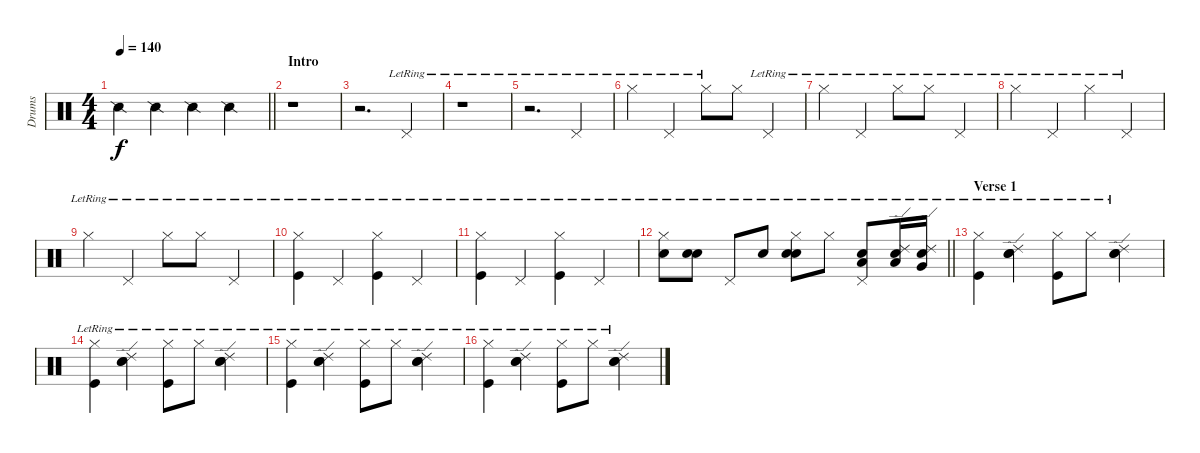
\track ("Drums" "Drums") {instrument percussion}
\staff {score}
\articulation defaults
\ts (4 4)
\tempo 140
\clef neutral
\barLineRight lightlight
\ks c "Snare (side stick) 2".4{dy f} "Snare (side stick) 2".4 "Snare (side stick) 2".4 "Snare (side stick) 2".4
|
\section ("" "Intro")
r.1 |
r.2{d} "Pedal Hi-Hat (hit)"{lr}.4 |
r.1 |
r.2{d} "Pedal Hi-Hat (hit)"{lr}.4 |
"Hi-Hat (closed)"{lr}.4 "Pedal Hi-Hat (hit)"{lr}.4 "Hi-Hat (closed)"{lr}.8 "Hi-Hat (closed)".8 "Pedal Hi-Hat (hit)"{lr}.4 |
"Hi-Hat (closed)"{lr}.4 "Pedal Hi-Hat (hit)"{lr}.4 "Hi-Hat (closed)"{lr}.8 "Hi-Hat (closed)"{lr}.8 "Pedal Hi-Hat (hit)"{lr}.4 |
"Hi-Hat (closed)"{lr}.4 "Pedal Hi-Hat (hit)"{lr}.4 "Hi-Hat (closed)"{lr}.4 "Pedal Hi-Hat (hit)"{lr}.4 |
"Hi-Hat (closed)"{lr}.4 "Pedal Hi-Hat (hit)"{lr}.4 "Hi-Hat (closed)"{lr}.8 "Hi-Hat (closed)"{lr}.8 "Pedal Hi-Hat (hit)"{lr}.4 |
("Hi-Hat (closed)"{lr} "Kick (hit)"{lr}).4 "Pedal Hi-Hat (hit)"{lr}.4 ("Hi-Hat (closed)"{lr} "Kick (hit)"{lr}).4 "Pedal Hi-Hat (hit)"{lr}.4 |
("Hi-Hat (closed)"{lr} "Kick (hit)"{lr}).4 "Pedal Hi-Hat (hit)"{lr}.4 ("Hi-Hat (closed)"{lr} "Kick (hit)"{lr}).4 "Pedal Hi-Hat (hit)"{lr}.4 |
\barLineRight lightlight
("Hi-Hat (closed)"{lr} "Snare (hit) 2"{lr}).8 ("Snare (hit) 2"{lr} "Electric Snare (hit)"{lr}).8 "Pedal Hi-Hat (hit)"{lr}.8 "Snare (hit) 2"{lr}.8 ("Hi-Hat (closed)"{lr} "Snare (hit) 2"{lr} "Electric Snare (hit)"{lr}).8 "Hi-Hat (closed)"{lr}.8 ("Pedal Hi-Hat (hit)"{lr} "Snare (hit) 2"{lr} "Low Tom (hit)"{lr}).8 ("Ride (edge) 2"{lr} "Snare (hit) 2"{lr} "Low Tom (hit)"{lr}).16 ("Ride (edge) 2"{lr} "Snare (hit) 2"{lr} "Very Low Tom (hit)"{lr}).16 |
\section ("" "Verse 1")
("Hi-Hat (closed)"{lr} "Kick (hit)"{lr}).4 ("Electric Snare (hit)"{lr} "Ride (edge) 2"{lr} "Snare (hit) 2"{lr}).4 ("Hi-Hat (closed)"{lr} "Kick (hit)"{lr}).8 "Hi-Hat (closed)"{lr}.8 ("Electric Snare (hit)"{lr} "Ride (edge) 2"{lr} "Snare (hit) 2"{lr}).4 |
("Hi-Hat (closed)"{lr} "Kick (hit)"{lr}).4 ("Electric Snare (hit)"{lr} "Ride (edge) 2"{lr} "Snare (hit) 2"{lr}).4 ("Hi-Hat (closed)"{lr} "Kick (hit)"{lr}).8 "Hi-Hat (closed)"{lr}.8 ("Electric Snare (hit)"{lr} "Ride (edge) 2"{lr} "Snare (hit) 2"{lr}).4 |
("Hi-Hat (closed)"{lr} "Kick (hit)"{lr}).4 ("Electric Snare (hit)"{lr} "Ride (edge) 2"{lr} "Snare (hit) 2"{lr}).4 ("Hi-Hat (closed)"{lr} "Kick (hit)"{lr}).8 "Hi-Hat (closed)"{lr}.8 ("Electric Snare (hit)"{lr} "Ride (edge) 2"{lr} "Snare (hit) 2"{lr}).4 |
("Hi-Hat (closed)"{lr} "Kick (hit)"{lr}).4 ("Electric Snare (hit)"{lr} "Ride (edge) 2"{lr} "Snare (hit) 2"{lr}).4 ("Hi-Hat (closed)"{lr} "Kick (hit)"{lr}).8 "Hi-Hat (closed)"{lr}.8 ("Electric Snare (hit)"{lr} "Ride (edge) 2"{lr} "Snare (hit) 2"{lr}).4
